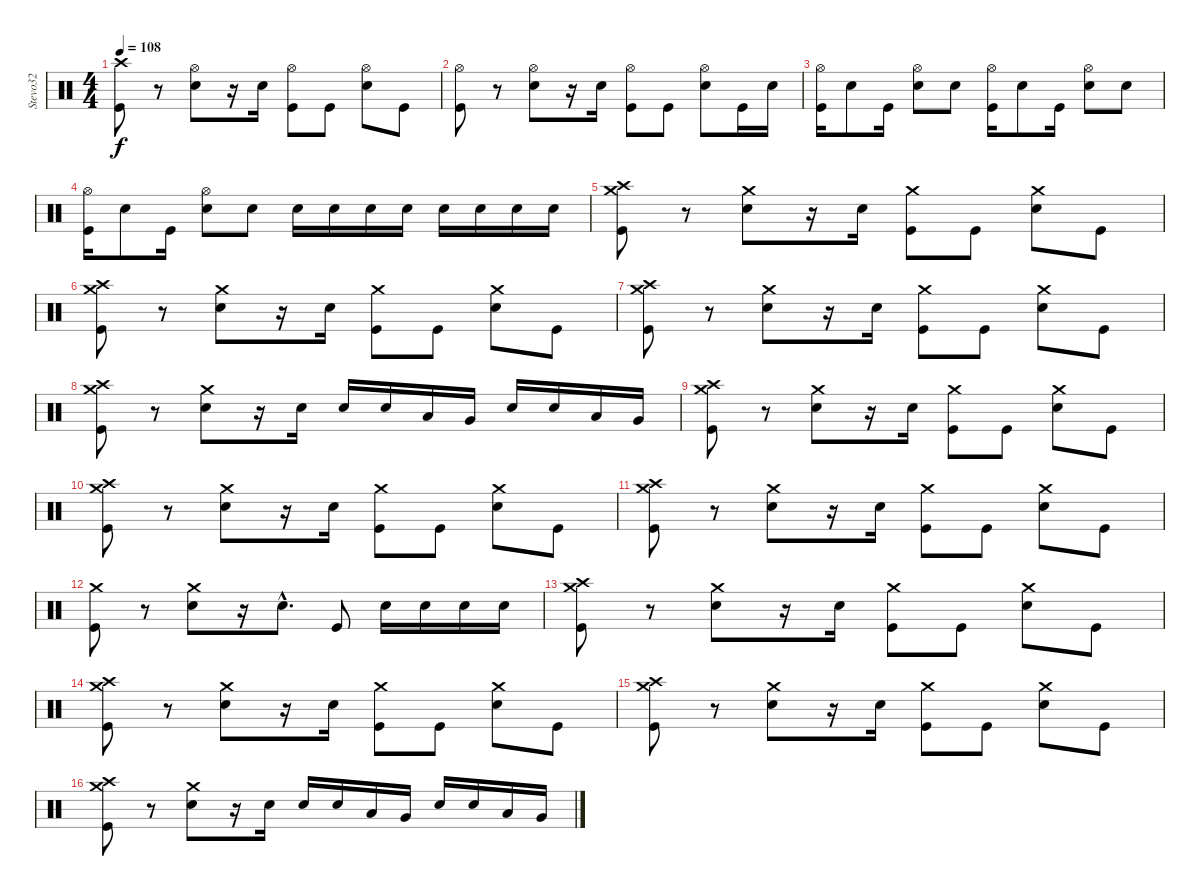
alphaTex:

\track ("Stevo32" "Stevo32") {instrument percussion}
\staff {score}
\articulation defaults
\ts (4 4)
\tempo 108
\clef neutral
\ks c
("Crash high (hit)" "Kick (hit)").8{dy f} r.8 ("Hi-Hat (open)" "Electric Snare (hit)").8 r.16 "Electric Snare (hit)".16 ("Hi-Hat (open)" "Kick (hit)").8 "Kick (hit)".8 ("Hi-Hat (open)" "Electric Snare (hit)").8 "Kick (hit)".8 |
("Hi-Hat (open)" "Kick (hit)").8 r.8 ("Hi-Hat (open)" "Electric Snare (hit)").8 r.16 "Electric Snare (hit)".16 ("Hi-Hat (open)" "Kick (hit)").8 "Kick (hit)".8 ("Hi-Hat (open)" "Electric Snare (hit)").8 "Kick (hit)".16 "Electric Snare (hit)".16 |
("Hi-Hat (open)" "Kick (hit)").16 "Electric Snare (hit)".8 "Kick (hit)".16 ("Hi-Hat (open)" "Electric Snare (hit)").8 "Electric Snare (hit)".8 ("Hi-Hat (open)" "Kick (hit)").16 "Electric Snare (hit)".8 "Kick (hit)".16 ("Hi-Hat (open)" "Electric Snare (hit)").8 "Electric Snare (hit)".8 |
("Hi-Hat (open)" "Kick (hit)").16 "Electric Snare (hit)".8 "Kick (hit)".16 ("Hi-Hat (open)" "Electric Snare (hit)").8 "Electric Snare (hit)".8 "Electric Snare (hit)".16 "Electric Snare (hit)".16 "Electric Snare (hit)".16 "Electric Snare (hit)".16 "Electric Snare (hit)".16 "Electric Snare (hit)".16 "Electric Snare (hit)".16 "Electric Snare (hit)".16 |
("Crash high (hit)" "Crash medium (hit)" "Kick (hit)").8 r.8 ("Crash medium (hit)" "Electric Snare (hit)").8 r.16 "Electric Snare (hit)".16 ("Crash medium (hit)" "Kick (hit)").8 "Kick (hit)".8 ("Crash medium (hit)" "Electric Snare (hit)").8 "Kick (hit)".8 |
("Crash high (hit)" "Crash medium (hit)" "Kick (hit)").8 r.8 ("Crash medium (hit)" "Electric Snare (hit)").8 r.16 "Electric Snare (hit)".16 ("Crash medium (hit)" "Kick (hit)").8 "Kick (hit)".8 ("Crash medium (hit)" "Electric Snare (hit)").8 "Kick (hit)".8 |
("Crash high (hit)" "Crash medium (hit)" "Kick (hit)").8 r.8 ("Crash medium (hit)" "Electric Snare (hit)").8 r.16 "Electric Snare (hit)".16 ("Crash medium (hit)" "Kick (hit)").8 "Kick (hit)".8 ("Crash medium (hit)" "Electric Snare (hit)").8 "Kick (hit)".8 |
("Crash high (hit)" "Crash medium (hit)" "Kick (hit)").8 r.8 ("Crash medium (hit)" "Electric Snare (hit)").8 r.16 "Electric Snare (hit)".16 "Electric Snare (hit)".16 "Electric Snare (hit)".16 "Low Tom (hit)".16 "Very Low Tom (hit)".16 "Electric Snare (hit)".16 "Electric Snare (hit)".16 "Low Tom (hit)".16 "Very Low Tom (hit)".16 |
("Crash high (hit)" "Crash medium (hit)" "Kick (hit)").8 r.8 ("Crash medium (hit)" "Electric Snare (hit)").8 r.16 "Electric Snare (hit)".16 ("Crash medium (hit)" "Kick (hit)").8 "Kick (hit)".8 ("Crash medium (hit)" "Electric Snare (hit)").8 "Kick (hit)".8 |
("Crash high (hit)" "Crash medium (hit)" "Kick (hit)").8 r.8 ("Crash medium (hit)" "Electric Snare (hit)").8 r.16 "Electric Snare (hit)".16 ("Crash medium (hit)" "Kick (hit)").8 "Kick (hit)".8 ("Crash medium (hit)" "Electric Snare (hit)").8 "Kick (hit)".8 |
("Crash high (hit)" "Crash medium (hit)" "Kick (hit)").8 r.8 ("Crash medium (hit)" "Electric Snare (hit)").8 r.16 "Electric Snare (hit)".16 ("Crash medium (hit)" "Kick (hit)").8 "Kick (hit)".8 ("Crash medium (hit)" "Electric Snare (hit)").8 "Kick (hit)".8 |
("Crash medium (hit)" "Kick (hit)").8 r.8 ("Crash medium (hit)" "Electric Snare (hit)").8 r.16 "Electric Snare (hit)"{hac}.8{d} "Kick (hit)".8 "Electric Snare (hit)".16 "Electric Snare (hit)".16 "Electric Snare (hit)".16 "Electric Snare (hit)".16 |
("Crash high (hit)" "Crash medium (hit)" "Kick (hit)").8 r.8 ("Crash medium (hit)" "Electric Snare (hit)").8 r.16 "Electric Snare (hit)".16 ("Crash medium (hit)" "Kick (hit)").8 "Kick (hit)".8 ("Crash medium (hit)" "Electric Snare (hit)").8 "Kick (hit)".8 |
("Crash high (hit)" "Crash medium (hit)" "Kick (hit)").8 r.8 ("Crash medium (hit)" "Electric Snare (hit)").8 r.16 "Electric Snare (hit)".16 ("Crash medium (hit)" "Kick (hit)").8 "Kick (hit)".8 ("Crash medium (hit)" "Electric Snare (hit)").8 "Kick (hit)".8 |
("Crash high (hit)" "Crash medium (hit)" "Kick (hit)").8 r.8 ("Crash medium (hit)" "Electric Snare (hit)").8 r.16 "Electric Snare (hit)".16 ("Crash medium (hit)" "Kick (hit)").8 "Kick (hit)".8 ("Crash medium (hit)" "Electric Snare (hit)").8 "Kick (hit)".8 |
("Crash high (hit)" "Crash medium (hit)" "Kick (hit)").8 r.8 ("Crash medium (hit)" "Electric Snare (hit)").8 r.16 "Electric Snare (hit)".16 "Electric Snare (hit)".16 "Electric Snare (hit)".16 "Low Tom (hit)".16 "Very Low Tom (hit)".16 "Electric Snare (hit)".16 "Electric Snare (hit)".16 "Low Tom (hit)".16 "Very Low Tom (hit)".16
